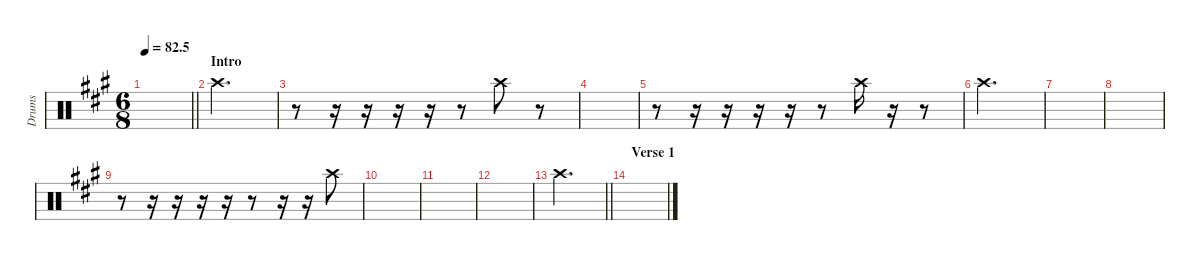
\defaultSystemsLayout 4
\hideDynamics
\bracketExtendMode nobrackets
\otherSystemsTrackNameOrientation horizontal
\track ("Left crash" "Drums") {instrument percussion}
\staff {score}
\articulation defaults
\ts (6 8)
\tempo
82.5
\accidentals auto
\clef neutral
\ottava regular
\simile none
\scale
0.474178
\barLineRight lightlight
\ks a
|
\section ("" "Intro")
\scale
0.262911 "Crash high (hit)"{acc forcenatural}.2{d} |
\scale
0.262911 r.8 r.16 r.16 r.16 r.16 r.8 "Crash high (hit)"{acc forcenatural}.8 r.8 |
\scale
0.333333 |
\scale
0.333333 r.8 r.16 r.16 r.16 r.16 r.8 "Crash high (hit)"{acc forcenatural}.16 r.16 r.8 |
\scale
0.333333 "Crash high (hit)"{acc forcenatural}.2{d} |
\scale
0.333333 |
\scale
0.333333 |
\scale
0.333333 r.8 r.16 r.16 r.16 r.16 r.8 r.16 r.16 "Crash high (hit)"{acc forcenatural}.8 |
\scale
0.333333 |
\scale
0.333333 |
\scale
0.333333 |
\scale
0.333333
\barLineRight lightlight "Crash high (hit)"{acc forcenatural}.2{d}
|
\section ("" "Verse 1")
\scale
0.333333 |
\scale
0.333333 |
\scale
0.333333
